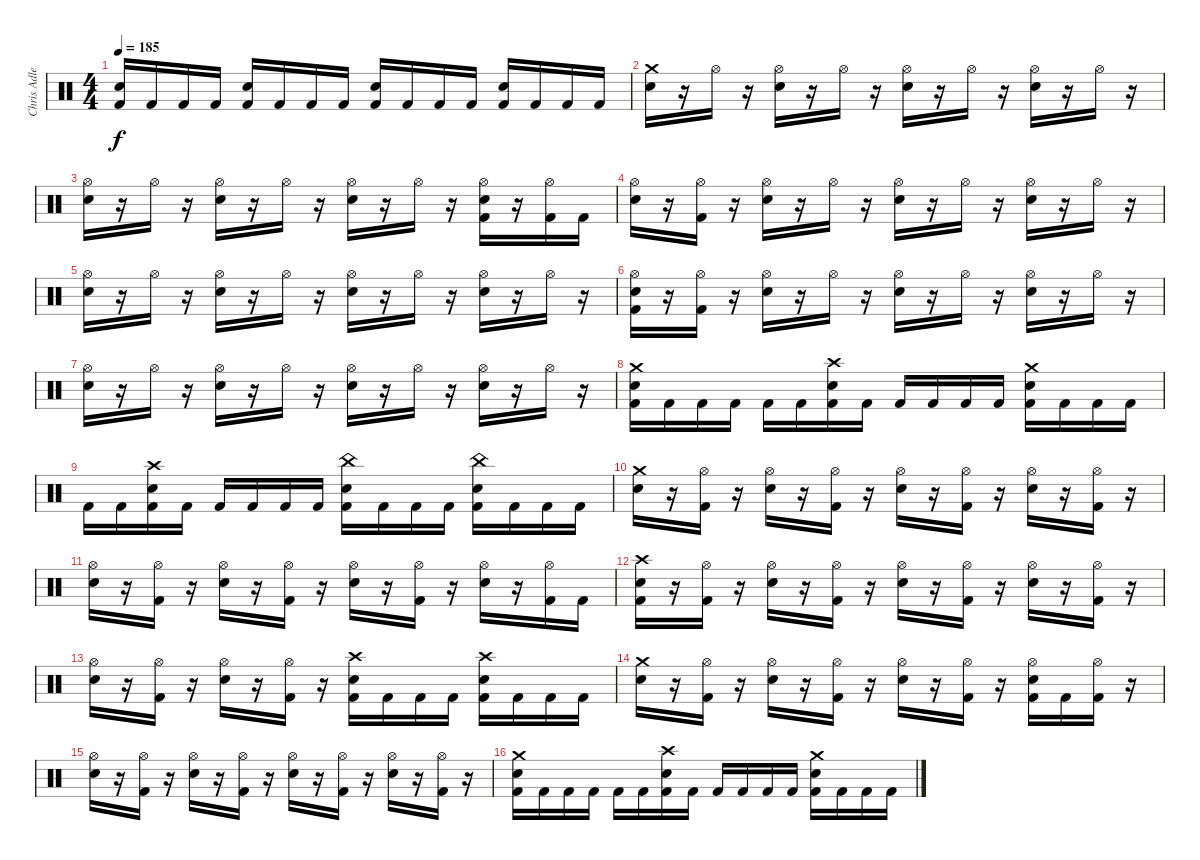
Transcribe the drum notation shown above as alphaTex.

\track ("Chris Adler" "Chris Adle") {instrument percussion}
\staff {score}
\articulation defaults
\ts (4 4)
\tempo 185
\clef neutral
\ks c
("Electric Snare (hit)" "Kick (hit) 2").16{dy f} "Kick (hit) 2".16 "Kick (hit) 2".16 "Kick (hit) 2".16 ("Electric Snare (hit)" "Kick (hit) 2").16 "Kick (hit) 2".16 "Kick (hit) 2".16 "Kick (hit) 2".16 ("Electric Snare (hit)" "Kick (hit) 2").16 "Kick (hit) 2".16 "Kick (hit) 2".16 "Kick (hit) 2".16 ("Electric Snare (hit)" "Kick (hit) 2").16 "Kick (hit) 2".16 "Kick (hit) 2".16 "Kick (hit) 2".16 |
("Crash medium (hit)" "Electric Snare (hit)").16 r.16 "Hi-Hat (open)".16 r.16 ("Hi-Hat (open)" "Electric Snare (hit)").16 r.16 "Hi-Hat (open)".16 r.16 ("Hi-Hat (open)" "Electric Snare (hit)").16 r.16 "Hi-Hat (open)".16 r.16 ("Hi-Hat (open)" "Electric Snare (hit)").16 r.16 "Hi-Hat (open)".16 r.16 |
("Hi-Hat (open)" "Electric Snare (hit)").16 r.16 "Hi-Hat (open)".16 r.16 ("Hi-Hat (open)" "Electric Snare (hit)").16 r.16 "Hi-Hat (open)".16 r.16 ("Hi-Hat (open)" "Electric Snare (hit)").16 r.16 "Hi-Hat (open)".16 r.16 ("Hi-Hat (open)" "Electric Snare (hit)" "Kick (hit) 2").16 r.16 ("Hi-Hat (open)" "Kick (hit) 2").16 "Kick (hit) 2".16 |
("Hi-Hat (open)" "Electric Snare (hit)").16 r.16 ("Hi-Hat (open)" "Kick (hit) 2").16 r.16 ("Hi-Hat (open)" "Electric Snare (hit)").16 r.16 "Hi-Hat (open)".16 r.16 ("Hi-Hat (open)" "Electric Snare (hit)").16 r.16 "Hi-Hat (open)".16 r.16 ("Hi-Hat (open)" "Electric Snare (hit)").16 r.16 "Hi-Hat (open)".16 r.16 |
("Hi-Hat (open)" "Electric Snare (hit)").16 r.16 "Hi-Hat (open)".16 r.16 ("Hi-Hat (open)" "Electric Snare (hit)").16 r.16 "Hi-Hat (open)".16 r.16 ("Hi-Hat (open)" "Electric Snare (hit)").16 r.16 "Hi-Hat (open)".16 r.16 ("Hi-Hat (open)" "Electric Snare (hit)").16 r.16 "Hi-Hat (open)".16 r.16 |
("Hi-Hat (open)" "Electric Snare (hit)" "Kick (hit) 2").16 r.16 ("Hi-Hat (open)" "Kick (hit) 2").16 r.16 ("Hi-Hat (open)" "Electric Snare (hit)").16 r.16 "Hi-Hat (open)".16 r.16 ("Hi-Hat (open)" "Electric Snare (hit)").16 r.16 "Hi-Hat (open)".16 r.16 ("Hi-Hat (open)" "Electric Snare (hit)").16 r.16 "Hi-Hat (open)".16 r.16 |
("Hi-Hat (open)" "Electric Snare (hit)").16 r.16 "Hi-Hat (open)".16 r.16 ("Hi-Hat (open)" "Electric Snare (hit)").16 r.16 "Hi-Hat (open)".16 r.16 ("Hi-Hat (open)" "Electric Snare (hit)").16 r.16 "Hi-Hat (open)".16 r.16 ("Hi-Hat (open)" "Electric Snare (hit)").16 r.16 "Hi-Hat (open)".16 r.16 |
("Crash medium (hit)" "Electric Snare (hit)" "Kick (hit) 2").16 "Kick (hit) 2".16 "Kick (hit) 2".16 "Kick (hit) 2".16 "Kick (hit) 2".16 "Kick (hit) 2".16 ("Crash high (hit)" "Electric Snare (hit)" "Kick (hit) 2").16 "Kick (hit) 2".16 "Kick (hit) 2".16 "Kick (hit) 2".16 "Kick (hit) 2".16 "Kick (hit) 2".16 ("Crash medium (hit)" "Electric Snare (hit)" "Kick (hit) 2").16 "Kick (hit) 2".16 "Kick (hit) 2".16 "Kick (hit) 2".16 |
"Kick (hit) 2".16 "Kick (hit) 2".16 ("Crash high (hit)" "Electric Snare (hit)" "Kick (hit) 2").16 "Kick (hit) 2".16 "Kick (hit) 2".16 "Kick (hit) 2".16 "Kick (hit) 2".16 "Kick (hit) 2".16 ("China (hit)" "Electric Snare (hit)" "Kick (hit) 2").16 "Kick (hit) 2".16 "Kick (hit) 2".16 "Kick (hit) 2".16 ("China (hit)" "Electric Snare (hit)" "Kick (hit) 2").16 "Kick (hit) 2".16 "Kick (hit) 2".16 "Kick (hit) 2".16 |
("Crash medium (hit)" "Electric Snare (hit)").16 r.16 ("Hi-Hat (open)" "Kick (hit) 2").16 r.16 ("Hi-Hat (open)" "Electric Snare (hit)").16 r.16 ("Hi-Hat (open)" "Kick (hit) 2").16 r.16 ("Hi-Hat (open)" "Electric Snare (hit)").16 r.16 ("Hi-Hat (open)" "Kick (hit) 2").16 r.16 ("Hi-Hat (open)" "Electric Snare (hit)").16 r.16 ("Hi-Hat (open)" "Kick (hit) 2").16 r.16 |
("Hi-Hat (open)" "Electric Snare (hit)").16 r.16 ("Hi-Hat (open)" "Kick (hit) 2").16 r.16 ("Hi-Hat (open)" "Electric Snare (hit)").16 r.16 ("Hi-Hat (open)" "Kick (hit) 2").16 r.16 ("Hi-Hat (open)" "Electric Snare (hit)").16 r.16 ("Hi-Hat (open)" "Kick (hit) 2").16 r.16 ("Hi-Hat (open)" "Electric Snare (hit)").16 r.16 ("Hi-Hat (open)" "Kick (hit) 2").16 "Kick (hit) 2".16 |
("Crash high (hit)" "Electric Snare (hit)" "Kick (hit) 2").16 r.16 ("Hi-Hat (open)" "Kick (hit) 2").16 r.16 ("Hi-Hat (open)" "Electric Snare (hit)").16 r.16 ("Hi-Hat (open)" "Kick (hit) 2").16 r.16 ("Hi-Hat (open)" "Electric Snare (hit)").16 r.16 ("Hi-Hat (open)" "Kick (hit) 2").16 r.16 ("Hi-Hat (open)" "Electric Snare (hit)").16 r.16 ("Hi-Hat (open)" "Kick (hit) 2").16 r.16 |
("Hi-Hat (open)" "Electric Snare (hit)").16 r.16 ("Hi-Hat (open)" "Kick (hit) 2").16 r.16 ("Hi-Hat (open)" "Electric Snare (hit)").16 r.16 ("Hi-Hat (open)" "Kick (hit) 2").16 r.16 ("Crash high (hit)" "Electric Snare (hit)" "Kick (hit) 2").16 "Kick (hit) 2".16 "Kick (hit) 2".16 "Kick (hit) 2".16 ("Crash high (hit)" "Electric Snare (hit)" "Kick (hit) 2").16 "Kick (hit) 2".16 "Kick (hit) 2".16 "Kick (hit) 2".16 |
("Crash medium (hit)" "Electric Snare (hit)").16 r.16 ("Hi-Hat (open)" "Kick (hit) 2").16 r.16 ("Hi-Hat (open)" "Electric Snare (hit)").16 r.16 ("Hi-Hat (open)" "Kick (hit) 2").16 r.16 ("Hi-Hat (open)" "Electric Snare (hit)").16 r.16 ("Hi-Hat (open)" "Kick (hit) 2").16 r.16 ("Hi-Hat (open)" "Electric Snare (hit)" "Kick (hit) 2").16 "Kick (hit) 2".16 ("Hi-Hat (open)" "Kick (hit) 2").16 r.16 |
("Hi-Hat (open)" "Electric Snare (hit)").16 r.16 ("Hi-Hat (open)" "Kick (hit) 2").16 r.16 ("Hi-Hat (open)" "Electric Snare (hit)").16 r.16 ("Hi-Hat (open)" "Kick (hit) 2").16 r.16 ("Hi-Hat (open)" "Electric Snare (hit)").16 r.16 ("Hi-Hat (open)" "Kick (hit) 2").16 r.16 ("Hi-Hat (open)" "Electric Snare (hit)").16 r.16 ("Hi-Hat (open)" "Kick (hit) 2").16 r.16 |
("Crash medium (hit)" "Electric Snare (hit)" "Kick (hit) 2").16 "Kick (hit) 2".16 "Kick (hit) 2".16 "Kick (hit) 2".16 "Kick (hit) 2".16 "Kick (hit) 2".16 ("Crash high (hit)" "Electric Snare (hit)" "Kick (hit) 2").16 "Kick (hit) 2".16 "Kick (hit) 2".16 "Kick (hit) 2".16 "Kick (hit) 2".16 "Kick (hit) 2".16 ("Crash medium (hit)" "Electric Snare (hit)" "Kick (hit) 2").16 "Kick (hit) 2".16 "Kick (hit) 2".16 "Kick (hit) 2".16
